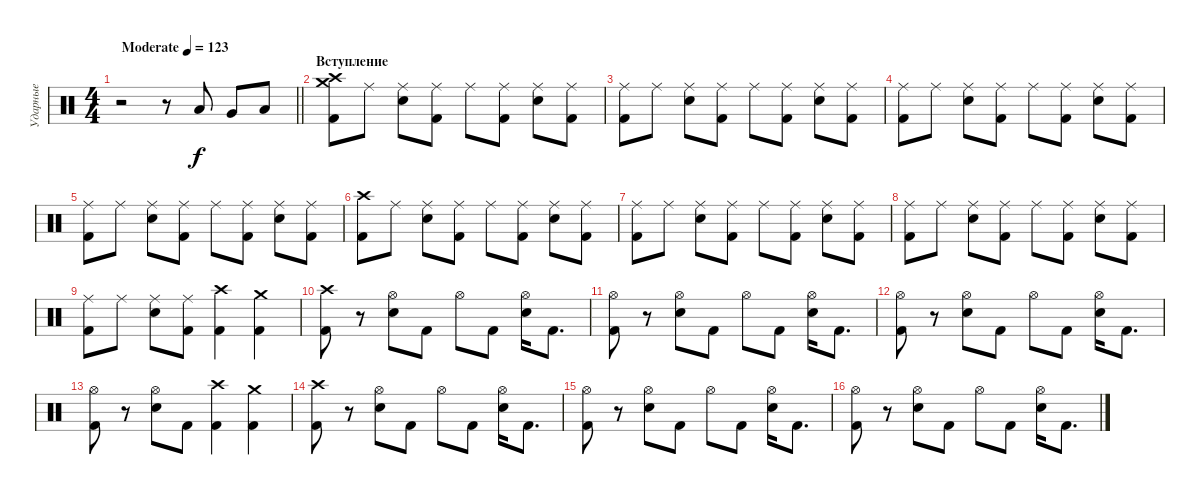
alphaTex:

\track ("Ударные" "Ударные") {instrument percussion}
\staff {score}
\articulation defaults
\ts (4 4)
\tempo (123 "Moderate")
\clef neutral
\barLineRight lightlight
\ks c
r.2{dy f} r.8 "Low Tom (hit)".8 "Very Low Tom (hit)".8 "Low Floor Tom (hit)".8 |
\section ("" "Вступление")
("Crash high (hit)" "Kick (hit) 2" "Crash medium (hit)").8 "Ride (middle)".8 ("Ride (middle)" "Electric Snare (hit)").8 ("Ride (middle)" "Kick (hit) 2").8 "Ride (middle)".8 ("Ride (middle)" "Kick (hit) 2").8 ("Ride (middle)" "Electric Snare (hit)").8 ("Ride (middle)" "Kick (hit) 2").8 |
("Ride (middle)" "Kick (hit) 2").8 "Ride (middle)".8 ("Ride (middle)" "Electric Snare (hit)").8 ("Ride (middle)" "Kick (hit) 2").8 "Ride (middle)".8 ("Ride (middle)" "Kick (hit) 2").8 ("Ride (middle)" "Electric Snare (hit)").8 ("Ride (middle)" "Kick (hit) 2").8 |
("Ride (middle)" "Kick (hit) 2").8 "Ride (middle)".8 ("Ride (middle)" "Electric Snare (hit)").8 ("Ride (middle)" "Kick (hit) 2").8 "Ride (middle)".8 ("Ride (middle)" "Kick (hit) 2").8 ("Ride (middle)" "Electric Snare (hit)").8 ("Ride (middle)" "Kick (hit) 2").8 |
("Ride (middle)" "Kick (hit) 2").8 "Ride (middle)".8 ("Ride (middle)" "Electric Snare (hit)").8 ("Ride (middle)" "Kick (hit) 2").8 "Ride (middle)".8 ("Ride (middle)" "Kick (hit) 2").8 ("Ride (middle)" "Electric Snare (hit)").8 ("Ride (middle)" "Kick (hit) 2").8 |
("Crash high (hit)" "Kick (hit) 2").8 "Ride (middle)".8 ("Ride (middle)" "Electric Snare (hit)").8 ("Ride (middle)" "Kick (hit) 2").8 "Ride (middle)".8 ("Ride (middle)" "Kick (hit) 2").8 ("Ride (middle)" "Electric Snare (hit)").8 ("Ride (middle)" "Kick (hit) 2").8 |
("Ride (middle)" "Kick (hit) 2").8 "Ride (middle)".8 ("Ride (middle)" "Electric Snare (hit)").8 ("Ride (middle)" "Kick (hit) 2").8 "Ride (middle)".8 ("Ride (middle)" "Kick (hit) 2").8 ("Ride (middle)" "Electric Snare (hit)").8 ("Ride (middle)" "Kick (hit) 2").8 |
("Ride (middle)" "Kick (hit) 2").8 "Ride (middle)".8 ("Ride (middle)" "Electric Snare (hit)").8 ("Ride (middle)" "Kick (hit) 2").8 "Ride (middle)".8 ("Ride (middle)" "Kick (hit) 2").8 ("Ride (middle)" "Electric Snare (hit)").8 ("Ride (middle)" "Kick (hit) 2").8 |
("Ride (middle)" "Kick (hit) 2").8 "Ride (middle)".8 ("Ride (middle)" "Electric Snare (hit)").8 ("Ride (middle)" "Kick (hit) 2").8 ("Kick (hit) 2" "Crash high (hit)").4 ("Kick (hit) 2" "Crash medium (hit)").4 |
("Crash high (hit)" "Kick (hit) 2").8 r.8 ("Hi-Hat (open)" "Electric Snare (hit)").8 "Kick (hit) 2".8 "Hi-Hat (open)".8 "Kick (hit) 2".8 ("Hi-Hat (open)" "Electric Snare (hit)").16 "Kick (hit) 2".8{d} |
("Hi-Hat (open)" "Kick (hit) 2").8 r.8 ("Hi-Hat (open)" "Electric Snare (hit)").8 "Kick (hit) 2".8 "Hi-Hat (open)".8 "Kick (hit) 2".8 ("Hi-Hat (open)" "Electric Snare (hit)").16 "Kick (hit) 2".8{d} |
("Hi-Hat (open)" "Kick (hit) 2").8 r.8 ("Hi-Hat (open)" "Electric Snare (hit)").8 "Kick (hit) 2".8 "Hi-Hat (open)".8 "Kick (hit) 2".8 ("Hi-Hat (open)" "Electric Snare (hit)").16 "Kick (hit) 2".8{d} |
("Hi-Hat (open)" "Kick (hit) 2").8 r.8 ("Hi-Hat (open)" "Electric Snare (hit)").8 "Kick (hit) 2".8 ("Kick (hit) 2" "Crash high (hit)").4 ("Kick (hit) 2" "Crash medium (hit)").4 |
("Crash high (hit)" "Kick (hit) 2").8 r.8 ("Hi-Hat (open)" "Electric Snare (hit)").8 "Kick (hit) 2".8 "Hi-Hat (open)".8 "Kick (hit) 2".8 ("Hi-Hat (open)" "Electric Snare (hit)").16 "Kick (hit) 2".8{d} |
("Hi-Hat (open)" "Kick (hit) 2").8 r.8 ("Hi-Hat (open)" "Electric Snare (hit)").8 "Kick (hit) 2".8 "Hi-Hat (open)".8 "Kick (hit) 2".8 ("Hi-Hat (open)" "Electric Snare (hit)").16 "Kick (hit) 2".8{d} |
("Hi-Hat (open)" "Kick (hit) 2").8 r.8 ("Hi-Hat (open)" "Electric Snare (hit)").8 "Kick (hit) 2".8 "Hi-Hat (open)".8 "Kick (hit) 2".8 ("Hi-Hat (open)" "Electric Snare (hit)").16 "Kick (hit) 2".8{d}
